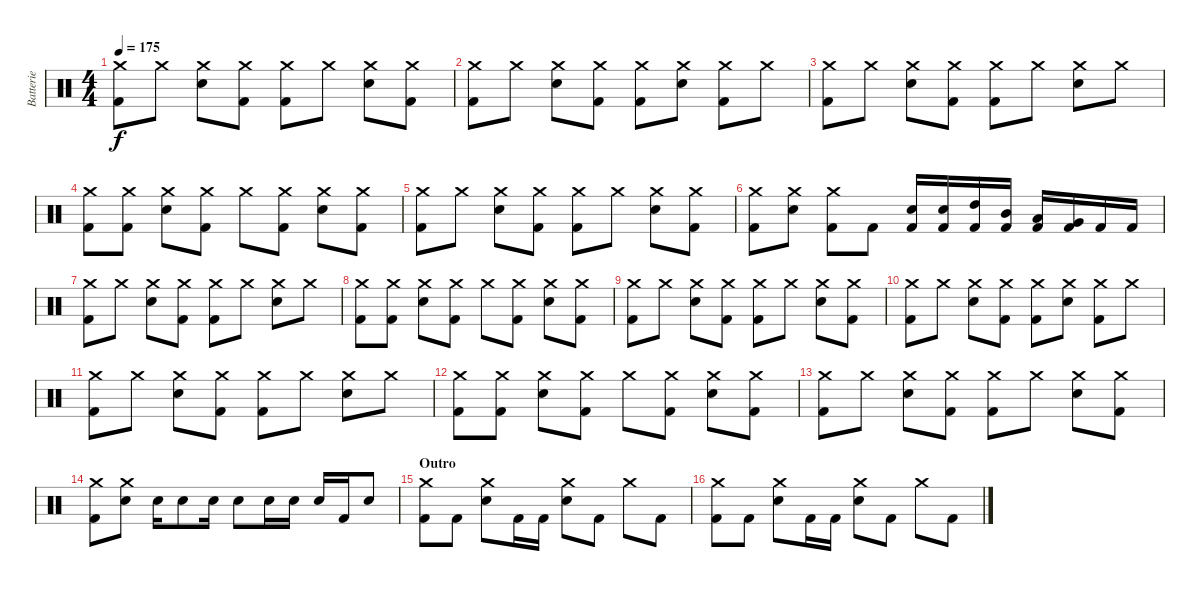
\track ("Batterie" "Batterie") {instrument percussion}
\staff {score}
\articulation defaults
\ts (4 4)
\tempo 175
\clef neutral
\ks c
("Crash medium (hit)" "Kick (hit) 2").8{dy f} "Crash medium (hit)".8 ("Crash medium (hit)" "Electric Snare (hit)").8 ("Crash medium (hit)" "Kick (hit) 2").8 ("Crash medium (hit)" "Kick (hit) 2").8 "Crash medium (hit)".8 ("Crash medium (hit)" "Electric Snare (hit)").8 ("Crash medium (hit)" "Kick (hit) 2").8 |
("Crash medium (hit)" "Kick (hit) 2").8 "Crash medium (hit)".8 ("Crash medium (hit)" "Electric Snare (hit)").8 ("Crash medium (hit)" "Kick (hit) 2").8 ("Crash medium (hit)" "Kick (hit) 2").8 ("Crash medium (hit)" "Electric Snare (hit)").8 ("Crash medium (hit)" "Kick (hit) 2").8 "Crash medium (hit)".8 |
("Crash medium (hit)" "Kick (hit) 2").8 "Crash medium (hit)".8 ("Crash medium (hit)" "Electric Snare (hit)").8 ("Crash medium (hit)" "Kick (hit) 2").8 ("Crash medium (hit)" "Kick (hit) 2").8 "Crash medium (hit)".8 ("Crash medium (hit)" "Electric Snare (hit)").8 "Crash medium (hit)".8 |
("Crash medium (hit)" "Kick (hit) 2").8 ("Crash medium (hit)" "Kick (hit) 2").8 ("Crash medium (hit)" "Electric Snare (hit)").8 ("Crash medium (hit)" "Kick (hit) 2").8 "Crash medium (hit)".8 ("Crash medium (hit)" "Kick (hit) 2").8 ("Crash medium (hit)" "Electric Snare (hit)").8 ("Crash medium (hit)" "Kick (hit) 2").8 |
("Crash medium (hit)" "Kick (hit) 2").8 "Crash medium (hit)".8 ("Crash medium (hit)" "Electric Snare (hit)").8 ("Crash medium (hit)" "Kick (hit) 2").8 ("Crash medium (hit)" "Kick (hit) 2").8 "Crash medium (hit)".8 ("Crash medium (hit)" "Electric Snare (hit)").8 ("Crash medium (hit)" "Kick (hit) 2").8 |
("Crash medium (hit)" "Kick (hit) 2").8 ("Crash medium (hit)" "Electric Snare (hit)").8 ("Crash medium (hit)" "Kick (hit) 2").8 "Kick (hit) 2".8 ("Electric Snare (hit)" "Kick (hit) 2").16 ("Electric Snare (hit)" "Kick (hit) 2").16 ("High Tom (hit)" "Kick (hit) 2").16 ("Mid Tom (hit)" "Kick (hit) 2").16 ("Low Tom (hit)" "Kick (hit) 2").16 ("Very Low Tom (hit)" "Kick (hit) 2").16 "Kick (hit) 2".16 "Kick (hit) 2".16 |
("Crash medium (hit)" "Kick (hit) 2").8 "Crash medium (hit)".8 ("Crash medium (hit)" "Electric Snare (hit)").8 ("Crash medium (hit)" "Kick (hit) 2").8 ("Crash medium (hit)" "Kick (hit) 2").8 "Crash medium (hit)".8 ("Crash medium (hit)" "Electric Snare (hit)").8 "Crash medium (hit)".8 |
("Crash medium (hit)" "Kick (hit) 2").8 ("Crash medium (hit)" "Kick (hit) 2").8 ("Crash medium (hit)" "Electric Snare (hit)").8 ("Crash medium (hit)" "Kick (hit) 2").8 "Crash medium (hit)".8 ("Crash medium (hit)" "Kick (hit) 2").8 ("Crash medium (hit)" "Electric Snare (hit)").8 ("Crash medium (hit)" "Kick (hit) 2").8 |
("Crash medium (hit)" "Kick (hit) 2").8 "Crash medium (hit)".8 ("Crash medium (hit)" "Electric Snare (hit)").8 ("Crash medium (hit)" "Kick (hit) 2").8 ("Crash medium (hit)" "Kick (hit) 2").8 "Crash medium (hit)".8 ("Crash medium (hit)" "Electric Snare (hit)").8 ("Crash medium (hit)" "Kick (hit) 2").8 |
("Crash medium (hit)" "Kick (hit) 2").8 "Crash medium (hit)".8 ("Crash medium (hit)" "Electric Snare (hit)").8 ("Crash medium (hit)" "Kick (hit) 2").8 ("Crash medium (hit)" "Kick (hit) 2").8 ("Crash medium (hit)" "Electric Snare (hit)").8 ("Crash medium (hit)" "Kick (hit) 2").8 "Crash medium (hit)".8 |
("Crash medium (hit)" "Kick (hit) 2").8 "Crash medium (hit)".8 ("Crash medium (hit)" "Electric Snare (hit)").8 ("Crash medium (hit)" "Kick (hit) 2").8 ("Crash medium (hit)" "Kick (hit) 2").8 "Crash medium (hit)".8 ("Crash medium (hit)" "Electric Snare (hit)").8 "Crash medium (hit)".8 |
("Crash medium (hit)" "Kick (hit) 2").8 ("Crash medium (hit)" "Kick (hit) 2").8 ("Crash medium (hit)" "Electric Snare (hit)").8 ("Crash medium (hit)" "Kick (hit) 2").8 "Crash medium (hit)".8 ("Crash medium (hit)" "Kick (hit) 2").8 ("Crash medium (hit)" "Electric Snare (hit)").8 ("Crash medium (hit)" "Kick (hit) 2").8 |
("Crash medium (hit)" "Kick (hit) 2").8 "Crash medium (hit)".8 ("Crash medium (hit)" "Electric Snare (hit)").8 ("Crash medium (hit)" "Kick (hit) 2").8 ("Crash medium (hit)" "Kick (hit) 2").8 "Crash medium (hit)".8 ("Crash medium (hit)" "Electric Snare (hit)").8 ("Crash medium (hit)" "Kick (hit) 2").8 |
("Crash medium (hit)" "Kick (hit) 2").8 ("Crash medium (hit)" "Electric Snare (hit)").8 "Electric Snare (hit)".16 "Electric Snare (hit)".8 "Electric Snare (hit)".16 "Electric Snare (hit)".8 "Electric Snare (hit)".16 "Electric Snare (hit)".16 "Electric Snare (hit)".16 "Kick (hit) 2".16 "Electric Snare (hit)".8 |
\section ("" "Outro")
("Crash medium (hit)" "Kick (hit) 2").8 "Kick (hit) 2".8 ("Crash medium (hit)" "Electric Snare (hit)").8 "Kick (hit) 2".16 "Kick (hit) 2".16 ("Crash medium (hit)" "Electric Snare (hit)").8 "Kick (hit) 2".8 "Crash medium (hit)".8 "Kick (hit) 2".8 |
("Crash medium (hit)" "Kick (hit) 2").8 "Kick (hit) 2".8 ("Crash medium (hit)" "Electric Snare (hit)").8 "Kick (hit) 2".16 "Kick (hit) 2".16 ("Crash medium (hit)" "Electric Snare (hit)").8 "Kick (hit) 2".8 "Crash medium (hit)".8 "Kick (hit) 2".8
